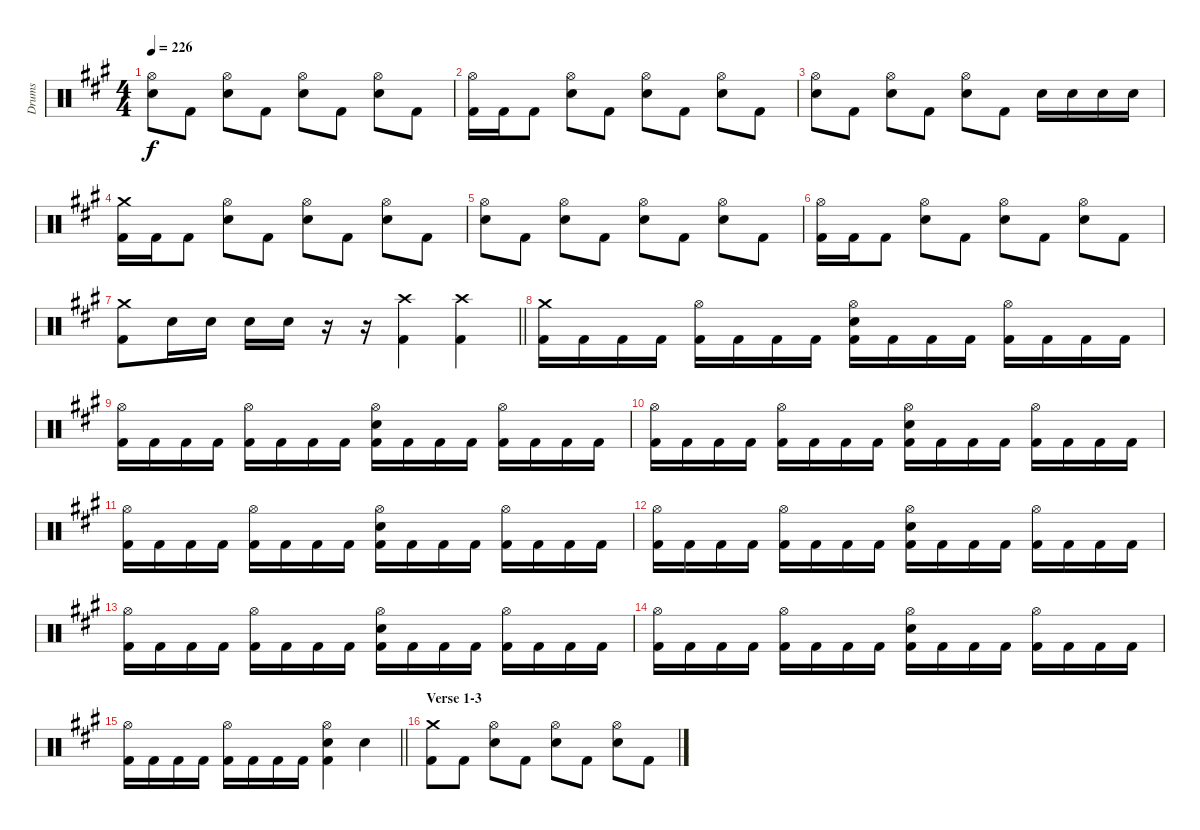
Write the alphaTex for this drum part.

\track ("Drums" "Drums") {instrument percussion}
\staff {score}
\articulation defaults
\ts (4 4)
\tempo 226
\clef neutral
\ks a
("Hi-Hat (open)" "Snare (hit) 2").8{dy f} "Kick (hit) 2".8 ("Hi-Hat (open)" "Snare (hit) 2").8 "Kick (hit) 2".8 ("Hi-Hat (open)" "Snare (hit) 2").8 "Kick (hit) 2".8 ("Hi-Hat (open)" "Snare (hit) 2").8 "Kick (hit) 2".8 |
("Hi-Hat (open)" "Kick (hit) 2").16 "Kick (hit) 2".16 "Kick (hit) 2".8 ("Hi-Hat (open)" "Snare (hit) 2").8 "Kick (hit) 2".8 ("Hi-Hat (open)" "Snare (hit) 2").8 "Kick (hit) 2".8 ("Hi-Hat (open)" "Snare (hit) 2").8 "Kick (hit) 2".8 |
("Hi-Hat (open)" "Snare (hit) 2").8 "Kick (hit) 2".8 ("Hi-Hat (open)" "Snare (hit) 2").8 "Kick (hit) 2".8 ("Hi-Hat (open)" "Snare (hit) 2").8 "Kick (hit) 2".8 "Snare (hit) 2".16 "Snare (hit) 2".16 "Snare (hit) 2".16 "Snare (hit) 2".16 |
("Crash medium (hit)" "Kick (hit) 2").16 "Kick (hit) 2".16 "Kick (hit) 2".8 ("Hi-Hat (open)" "Snare (hit) 2").8 "Kick (hit) 2".8 ("Hi-Hat (open)" "Snare (hit) 2").8 "Kick (hit) 2".8 ("Hi-Hat (open)" "Snare (hit) 2").8 "Kick (hit) 2".8 |
("Hi-Hat (open)" "Snare (hit) 2").8 "Kick (hit) 2".8 ("Hi-Hat (open)" "Snare (hit) 2").8 "Kick (hit) 2".8 ("Hi-Hat (open)" "Snare (hit) 2").8 "Kick (hit) 2".8 ("Hi-Hat (open)" "Snare (hit) 2").8 "Kick (hit) 2".8 |
("Hi-Hat (open)" "Kick (hit) 2").16 "Kick (hit) 2".16 "Kick (hit) 2".8 ("Hi-Hat (open)" "Snare (hit) 2").8 "Kick (hit) 2".8 ("Hi-Hat (open)" "Snare (hit) 2").8 "Kick (hit) 2".8 ("Hi-Hat (open)" "Snare (hit) 2").8 "Kick (hit) 2".8 |
\barLineRight lightlight
("Crash medium (hit)" "Kick (hit) 2").8 "Snare (hit) 2".16 "Snare (hit) 2".16 "Snare (hit) 2".16 "Snare (hit) 2".16 r.16 r.16 ("Crash high (hit)" "Kick (hit) 2").4 ("Crash high (hit)" "Kick (hit) 2").4 |
("Crash medium (hit)" "Kick (hit) 2").16 "Kick (hit) 2".16 "Kick (hit) 2".16 "Kick (hit) 2".16 ("Hi-Hat (open)" "Kick (hit) 2").16 "Kick (hit) 2".16 "Kick (hit) 2".16 "Kick (hit) 2".16 ("Hi-Hat (open)" "Snare (hit) 2" "Kick (hit) 2").16 "Kick (hit) 2".16 "Kick (hit) 2".16 "Kick (hit) 2".16 ("Hi-Hat (open)" "Kick (hit) 2").16 "Kick (hit) 2".16 "Kick (hit) 2".16 "Kick (hit) 2".16 |
("Hi-Hat (open)" "Kick (hit) 2").16 "Kick (hit) 2".16 "Kick (hit) 2".16 "Kick (hit) 2".16 ("Hi-Hat (open)" "Kick (hit) 2").16 "Kick (hit) 2".16 "Kick (hit) 2".16 "Kick (hit) 2".16 ("Hi-Hat (open)" "Snare (hit) 2" "Kick (hit) 2").16 "Kick (hit) 2".16 "Kick (hit) 2".16 "Kick (hit) 2".16 ("Hi-Hat (open)" "Kick (hit) 2").16 "Kick (hit) 2".16 "Kick (hit) 2".16 "Kick (hit) 2".16 |
("Hi-Hat (open)" "Kick (hit) 2").16 "Kick (hit) 2".16 "Kick (hit) 2".16 "Kick (hit) 2".16 ("Hi-Hat (open)" "Kick (hit) 2").16 "Kick (hit) 2".16 "Kick (hit) 2".16 "Kick (hit) 2".16 ("Hi-Hat (open)" "Snare (hit) 2" "Kick (hit) 2").16 "Kick (hit) 2".16 "Kick (hit) 2".16 "Kick (hit) 2".16 ("Hi-Hat (open)" "Kick (hit) 2").16 "Kick (hit) 2".16 "Kick (hit) 2".16 "Kick (hit) 2".16 |
("Hi-Hat (open)" "Kick (hit) 2").16 "Kick (hit) 2".16 "Kick (hit) 2".16 "Kick (hit) 2".16 ("Hi-Hat (open)" "Kick (hit) 2").16 "Kick (hit) 2".16 "Kick (hit) 2".16 "Kick (hit) 2".16 ("Hi-Hat (open)" "Snare (hit) 2" "Kick (hit) 2").16 "Kick (hit) 2".16 "Kick (hit) 2".16 "Kick (hit) 2".16 ("Hi-Hat (open)" "Kick (hit) 2").16 "Kick (hit) 2".16 "Kick (hit) 2".16 "Kick (hit) 2".16 |
("Hi-Hat (open)" "Kick (hit) 2").16 "Kick (hit) 2".16 "Kick (hit) 2".16 "Kick (hit) 2".16 ("Hi-Hat (open)" "Kick (hit) 2").16 "Kick (hit) 2".16 "Kick (hit) 2".16 "Kick (hit) 2".16 ("Hi-Hat (open)" "Snare (hit) 2" "Kick (hit) 2").16 "Kick (hit) 2".16 "Kick (hit) 2".16 "Kick (hit) 2".16 ("Hi-Hat (open)" "Kick (hit) 2").16 "Kick (hit) 2".16 "Kick (hit) 2".16 "Kick (hit) 2".16 |
("Hi-Hat (open)" "Kick (hit) 2").16 "Kick (hit) 2".16 "Kick (hit) 2".16 "Kick (hit) 2".16 ("Hi-Hat (open)" "Kick (hit) 2").16 "Kick (hit) 2".16 "Kick (hit) 2".16 "Kick (hit) 2".16 ("Hi-Hat (open)" "Snare (hit) 2" "Kick (hit) 2").16 "Kick (hit) 2".16 "Kick (hit) 2".16 "Kick (hit) 2".16 ("Hi-Hat (open)" "Kick (hit) 2").16 "Kick (hit) 2".16 "Kick (hit) 2".16 "Kick (hit) 2".16 |
("Hi-Hat (open)" "Kick (hit) 2").16 "Kick (hit) 2".16 "Kick (hit) 2".16 "Kick (hit) 2".16 ("Hi-Hat (open)" "Kick (hit) 2").16 "Kick (hit) 2".16 "Kick (hit) 2".16 "Kick (hit) 2".16 ("Hi-Hat (open)" "Snare (hit) 2" "Kick (hit) 2").16 "Kick (hit) 2".16 "Kick (hit) 2".16 "Kick (hit) 2".16 ("Hi-Hat (open)" "Kick (hit) 2").16 "Kick (hit) 2".16 "Kick (hit) 2".16 "Kick (hit) 2".16 |
\barLineRight lightlight
("Hi-Hat (open)" "Kick (hit) 2").16 "Kick (hit) 2".16 "Kick (hit) 2".16 "Kick (hit) 2".16 ("Hi-Hat (open)" "Kick (hit) 2").16 "Kick (hit) 2".16 "Kick (hit) 2".16 "Kick (hit) 2".16 ("Hi-Hat (open)" "Snare (hit) 2" "Kick (hit) 2").4 "Snare (hit) 2".4 |
\section ("" "Verse 1-3")
("Crash medium (hit)" "Kick (hit) 2").8 "Kick (hit) 2".8 ("Hi-Hat (open)" "Snare (hit) 2").8 "Kick (hit) 2".8 ("Hi-Hat (open)" "Snare (hit) 2").8 "Kick (hit) 2".8 ("Hi-Hat (open)" "Snare (hit) 2").8 "Kick (hit) 2".8
